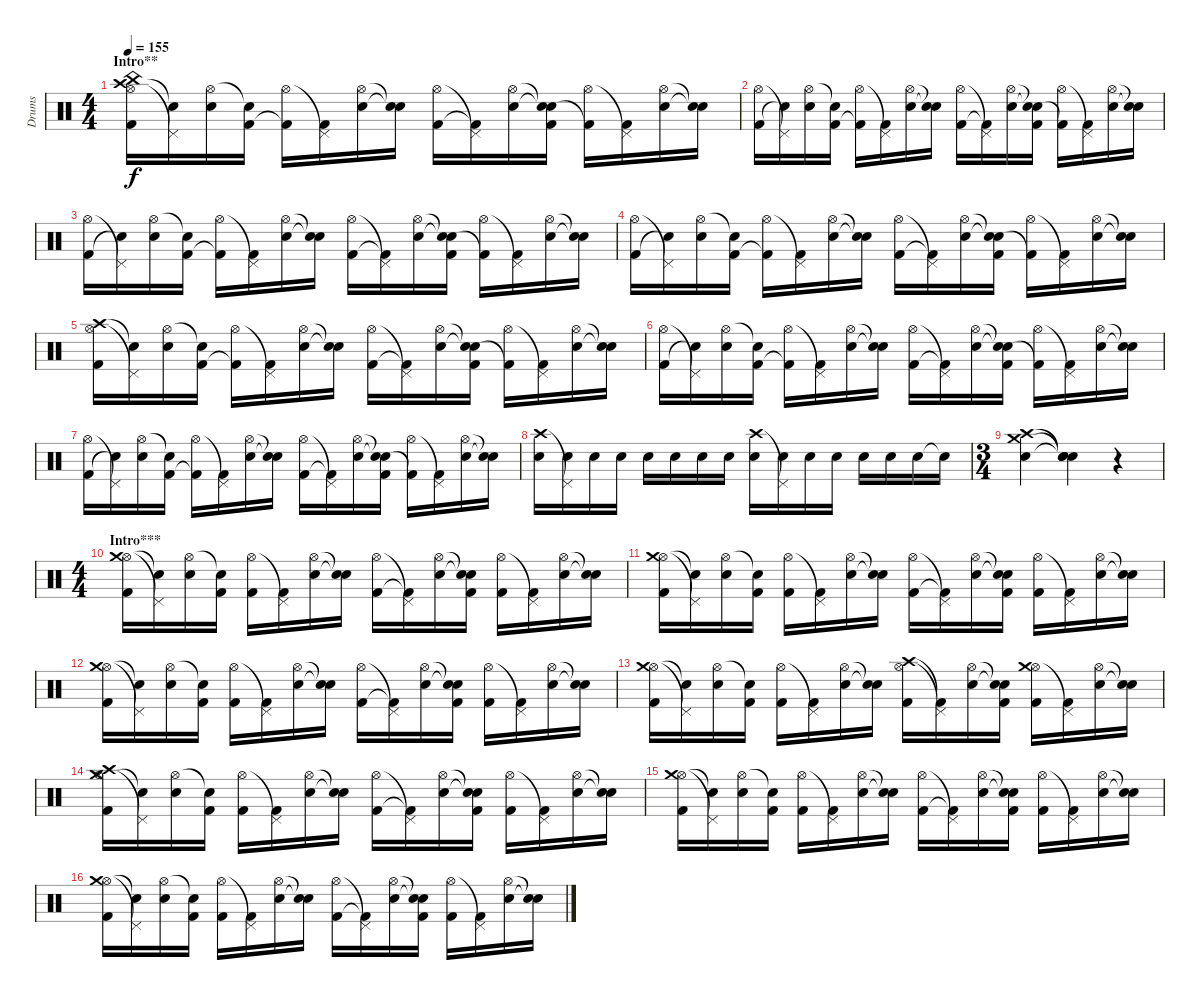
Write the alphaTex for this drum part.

\track ("Drums" "Drums") {instrument percussion}
\staff {score}
\articulation defaults
\ts (4 4)
\section ("" "Intro**")
\tempo 155
\clef neutral
\ks c
("Hi-Hat (open)" "Crash high (hit)" "China (hit)" "Kick (hit) 2").16{dy f} ("Pedal Hi-Hat (hit)"{t} "Snare (hit)"{t}).16 ("Hi-Hat (open)" "Electric Snare (hit)").16 ("Snare (hit)"{t} "Kick (hit) 2").16 ("Hi-Hat (open)" "Kick (hit) 2"{t}).16 ("Pedal Hi-Hat (hit)"{t} "Kick (hit) 2").16 ("Hi-Hat (open)" "Electric Snare (hit)").16 ("Snare (hit)"{t} "Electric Snare (hit)"{t}).16 ("Hi-Hat (open)" "Kick (hit) 2").16 ("Pedal Hi-Hat (hit)"{t} "Kick (hit) 2"{t}).16 ("Hi-Hat (open)" "Electric Snare (hit)").16 ("Snare (hit)"{t} "Electric Snare (hit)"{t} "Kick (hit) 2").16 ("Hi-Hat (open)" "Kick (hit) 2"{t}).16 ("Pedal Hi-Hat (hit)"{t} "Kick (hit) 2").16 ("Hi-Hat (open)" "Electric Snare (hit)").16 ("Snare (hit)"{t} "Electric Snare (hit)"{t}).16 |
("Hi-Hat (open)" "Kick (hit) 2").16 ("Pedal Hi-Hat (hit)"{t} "Snare (hit)"{t}).16 ("Hi-Hat (open)" "Electric Snare (hit)").16 ("Snare (hit)"{t} "Kick (hit) 2").16 ("Hi-Hat (open)" "Kick (hit) 2"{t}).16 ("Pedal Hi-Hat (hit)"{t} "Kick (hit) 2").16 ("Hi-Hat (open)" "Electric Snare (hit)").16 ("Snare (hit)"{t} "Electric Snare (hit)"{t}).16 ("Hi-Hat (open)" "Kick (hit) 2").16 ("Pedal Hi-Hat (hit)"{t} "Kick (hit) 2"{t}).16 ("Hi-Hat (open)" "Electric Snare (hit)").16 ("Snare (hit)"{t} "Electric Snare (hit)"{t} "Kick (hit) 2").16 ("Hi-Hat (open)" "Kick (hit) 2"{t}).16 ("Pedal Hi-Hat (hit)"{t} "Kick (hit) 2").16 ("Hi-Hat (open)" "Electric Snare (hit)").16 ("Snare (hit)"{t} "Electric Snare (hit)"{t}).16 |
("Hi-Hat (open)" "Kick (hit) 2").16 ("Pedal Hi-Hat (hit)"{t} "Snare (hit)"{t}).16 ("Hi-Hat (open)" "Electric Snare (hit)").16 ("Snare (hit)"{t} "Kick (hit) 2").16 ("Hi-Hat (open)" "Kick (hit) 2"{t}).16 ("Pedal Hi-Hat (hit)"{t} "Kick (hit) 2").16 ("Hi-Hat (open)" "Electric Snare (hit)").16 ("Snare (hit)"{t} "Electric Snare (hit)"{t}).16 ("Hi-Hat (open)" "Kick (hit) 2").16 ("Pedal Hi-Hat (hit)"{t} "Kick (hit) 2"{t}).16 ("Hi-Hat (open)" "Electric Snare (hit)").16 ("Snare (hit)"{t} "Electric Snare (hit)"{t} "Kick (hit) 2").16 ("Hi-Hat (open)" "Kick (hit) 2"{t}).16 ("Pedal Hi-Hat (hit)"{t} "Kick (hit) 2").16 ("Hi-Hat (open)" "Electric Snare (hit)").16 ("Snare (hit)"{t} "Electric Snare (hit)"{t}).16 |
("Hi-Hat (open)" "Kick (hit) 2").16 ("Pedal Hi-Hat (hit)"{t} "Snare (hit)"{t}).16 ("Hi-Hat (open)" "Electric Snare (hit)").16 ("Snare (hit)"{t} "Kick (hit) 2").16 ("Hi-Hat (open)" "Kick (hit) 2"{t}).16 ("Pedal Hi-Hat (hit)"{t} "Kick (hit) 2").16 ("Hi-Hat (open)" "Electric Snare (hit)").16 ("Snare (hit)"{t} "Electric Snare (hit)"{t}).16 ("Hi-Hat (open)" "Kick (hit) 2").16 ("Pedal Hi-Hat (hit)"{t} "Kick (hit) 2"{t}).16 ("Hi-Hat (open)" "Electric Snare (hit)").16 ("Snare (hit)"{t} "Electric Snare (hit)"{t} "Kick (hit) 2").16 ("Hi-Hat (open)" "Kick (hit) 2"{t}).16 ("Pedal Hi-Hat (hit)"{t} "Kick (hit) 2").16 ("Hi-Hat (open)" "Electric Snare (hit)").16 ("Snare (hit)"{t} "Electric Snare (hit)"{t}).16 |
("Hi-Hat (open)" "Crash high (hit)" "Kick (hit) 2").16 ("Pedal Hi-Hat (hit)"{t} "Snare (hit)"{t}).16 ("Hi-Hat (open)" "Electric Snare (hit)").16 ("Snare (hit)"{t} "Kick (hit) 2").16 ("Hi-Hat (open)" "Kick (hit) 2"{t}).16 ("Pedal Hi-Hat (hit)"{t} "Kick (hit) 2").16 ("Hi-Hat (open)" "Electric Snare (hit)").16 ("Snare (hit)"{t} "Electric Snare (hit)"{t}).16 ("Hi-Hat (open)" "Kick (hit) 2").16 ("Pedal Hi-Hat (hit)"{t} "Kick (hit) 2"{t}).16 ("Hi-Hat (open)" "Electric Snare (hit)").16 ("Snare (hit)"{t} "Electric Snare (hit)"{t} "Kick (hit) 2").16 ("Hi-Hat (open)" "Kick (hit) 2"{t}).16 ("Pedal Hi-Hat (hit)"{t} "Kick (hit) 2").16 ("Hi-Hat (open)" "Electric Snare (hit)").16 ("Snare (hit)"{t} "Electric Snare (hit)"{t}).16 |
("Hi-Hat (open)" "Kick (hit) 2").16 ("Pedal Hi-Hat (hit)"{t} "Snare (hit)"{t}).16 ("Hi-Hat (open)" "Electric Snare (hit)").16 ("Snare (hit)"{t} "Kick (hit) 2").16 ("Hi-Hat (open)" "Kick (hit) 2"{t}).16 ("Pedal Hi-Hat (hit)"{t} "Kick (hit) 2").16 ("Hi-Hat (open)" "Electric Snare (hit)").16 ("Snare (hit)"{t} "Electric Snare (hit)"{t}).16 ("Hi-Hat (open)" "Kick (hit) 2").16 ("Pedal Hi-Hat (hit)"{t} "Kick (hit) 2"{t}).16 ("Hi-Hat (open)" "Electric Snare (hit)").16 ("Snare (hit)"{t} "Electric Snare (hit)"{t} "Kick (hit) 2").16 ("Hi-Hat (open)" "Kick (hit) 2"{t}).16 ("Pedal Hi-Hat (hit)"{t} "Kick (hit) 2").16 ("Hi-Hat (open)" "Electric Snare (hit)").16 ("Snare (hit)"{t} "Electric Snare (hit)"{t}).16 |
("Hi-Hat (open)" "Kick (hit) 2").16 ("Pedal Hi-Hat (hit)"{t} "Snare (hit)"{t}).16 ("Hi-Hat (open)" "Electric Snare (hit)").16 ("Snare (hit)"{t} "Kick (hit) 2").16 ("Hi-Hat (open)" "Kick (hit) 2"{t}).16 ("Pedal Hi-Hat (hit)"{t} "Kick (hit) 2").16 ("Hi-Hat (open)" "Electric Snare (hit)").16 ("Snare (hit)"{t} "Electric Snare (hit)"{t}).16 ("Hi-Hat (open)" "Kick (hit) 2").16 ("Pedal Hi-Hat (hit)"{t} "Kick (hit) 2"{t}).16 ("Hi-Hat (open)" "Electric Snare (hit)").16 ("Snare (hit)"{t} "Electric Snare (hit)"{t} "Kick (hit) 2").16 ("Hi-Hat (open)" "Kick (hit) 2"{t}).16 ("Pedal Hi-Hat (hit)"{t} "Kick (hit) 2").16 ("Hi-Hat (open)" "Electric Snare (hit)").16 ("Snare (hit)"{t} "Electric Snare (hit)"{t}).16 |
("Crash high (hit)" "Snare (hit) 2").16 ("Pedal Hi-Hat (hit)"{t} "Snare (hit) 2").16 "Electric Snare (hit)".16 "Electric Snare (hit)".16 "Electric Snare (hit)".16 "Electric Snare (hit)".16 "Electric Snare (hit)".16 "Snare (hit) 2".16 ("Crash high (hit)" "Snare (hit) 2").16 ("Pedal Hi-Hat (hit)"{t} "Snare (hit) 2").16 "Electric Snare (hit)".16 "Electric Snare (hit)".16 "Electric Snare (hit)".16 "Electric Snare (hit)".16 "Electric Snare (hit)".16 "Snare (hit)"{t}.16 |
\ts (3 4)
("Crash high (hit)" "Crash medium (hit)" "Snare (hit) 2").4 ("Snare (hit)"{t} "Snare (hit)"{t} "Snare (hit)"{t}).4 r.4 |
\ts (4 4)
\section ("" "Intro***")
("Hi-Hat (open)" "Crash medium (hit)" "Kick (hit) 2").16 ("Pedal Hi-Hat (hit)"{t} "Snare (hit)"{t}).16 ("Hi-Hat (open)" "Electric Snare (hit)").16 ("Snare (hit)"{t} "Kick (hit) 2").16 ("Hi-Hat (open)" "Kick (hit) 2").16 ("Pedal Hi-Hat (hit)"{t} "Kick (hit) 2").16 ("Hi-Hat (open)" "Electric Snare (hit)").16 ("Snare (hit)"{t} "Electric Snare (hit)"{t}).16 ("Hi-Hat (open)" "Kick (hit) 2").16 ("Pedal Hi-Hat (hit)"{t} "Kick (hit) 2"{t}).16 ("Hi-Hat (open)" "Electric Snare (hit)").16 ("Snare (hit)"{t} "Electric Snare (hit)"{t} "Kick (hit) 2").16 ("Hi-Hat (open)" "Kick (hit) 2").16 ("Pedal Hi-Hat (hit)"{t} "Kick (hit) 2").16 ("Hi-Hat (open)" "Electric Snare (hit)").16 ("Snare (hit)"{t} "Electric Snare (hit)"{t}).16 |
("Hi-Hat (open)" "Crash medium (hit)" "Kick (hit) 2").16 ("Pedal Hi-Hat (hit)"{t} "Snare (hit)"{t}).16 ("Hi-Hat (open)" "Electric Snare (hit)").16 ("Snare (hit)"{t} "Kick (hit) 2").16 ("Hi-Hat (open)" "Kick (hit) 2").16 ("Pedal Hi-Hat (hit)"{t} "Kick (hit) 2").16 ("Hi-Hat (open)" "Electric Snare (hit)").16 ("Snare (hit)"{t} "Electric Snare (hit)"{t}).16 ("Hi-Hat (open)" "Kick (hit) 2").16 ("Pedal Hi-Hat (hit)"{t} "Kick (hit) 2"{t}).16 ("Hi-Hat (open)" "Electric Snare (hit)").16 ("Snare (hit)"{t} "Electric Snare (hit)"{t} "Kick (hit) 2").16 ("Hi-Hat (open)" "Kick (hit) 2").16 ("Pedal Hi-Hat (hit)"{t} "Kick (hit) 2").16 ("Hi-Hat (open)" "Electric Snare (hit)").16 ("Snare (hit)"{t} "Electric Snare (hit)"{t}).16 |
("Hi-Hat (open)" "Crash medium (hit)" "Kick (hit) 2").16 ("Pedal Hi-Hat (hit)"{t} "Snare (hit)"{t}).16 ("Hi-Hat (open)" "Electric Snare (hit)").16 ("Snare (hit)"{t} "Kick (hit) 2").16 ("Hi-Hat (open)" "Kick (hit) 2").16 ("Pedal Hi-Hat (hit)"{t} "Kick (hit) 2").16 ("Hi-Hat (open)" "Electric Snare (hit)").16 ("Snare (hit)"{t} "Electric Snare (hit)"{t}).16 ("Hi-Hat (open)" "Kick (hit) 2").16 ("Pedal Hi-Hat (hit)"{t} "Kick (hit) 2"{t}).16 ("Hi-Hat (open)" "Electric Snare (hit)").16 ("Snare (hit)"{t} "Electric Snare (hit)"{t} "Kick (hit) 2").16 ("Hi-Hat (open)" "Kick (hit) 2").16 ("Pedal Hi-Hat (hit)"{t} "Kick (hit) 2").16 ("Hi-Hat (open)" "Electric Snare (hit)").16 ("Snare (hit)"{t} "Electric Snare (hit)"{t}).16 |
("Hi-Hat (open)" "Crash medium (hit)" "Kick (hit) 2").16 ("Pedal Hi-Hat (hit)"{t} "Snare (hit)"{t}).16 ("Hi-Hat (open)" "Electric Snare (hit)").16 ("Snare (hit)"{t} "Kick (hit) 2").16 ("Hi-Hat (open)" "Kick (hit) 2").16 ("Pedal Hi-Hat (hit)"{t} "Kick (hit) 2").16 ("Hi-Hat (open)" "Electric Snare (hit)").16 ("Snare (hit)"{t} "Electric Snare (hit)"{t}).16 ("Hi-Hat (open)" "Crash high (hit)" "Kick (hit) 2").16 ("Pedal Hi-Hat (hit)"{t} "Kick (hit) 2"{t}).16 ("Hi-Hat (open)" "Electric Snare (hit)").16 ("Snare (hit)"{t} "Electric Snare (hit)"{t} "Kick (hit) 2").16 ("Hi-Hat (open)" "Crash medium (hit)" "Kick (hit) 2").16 ("Pedal Hi-Hat (hit)"{t} "Kick (hit) 2").16 ("Hi-Hat (open)" "Electric Snare (hit)").16 ("Snare (hit)"{t} "Electric Snare (hit)"{t}).16 |
("Hi-Hat (open)" "Crash medium (hit)" "Crash high (hit)" "Kick (hit) 2").16 ("Pedal Hi-Hat (hit)"{t} "Snare (hit)"{t}).16 ("Hi-Hat (open)" "Electric Snare (hit)").16 ("Snare (hit)"{t} "Kick (hit) 2").16 ("Hi-Hat (open)" "Kick (hit) 2").16 ("Pedal Hi-Hat (hit)"{t} "Kick (hit) 2").16 ("Hi-Hat (open)" "Electric Snare (hit)").16 ("Snare (hit)"{t} "Electric Snare (hit)"{t}).16 ("Hi-Hat (open)" "Kick (hit) 2").16 ("Pedal Hi-Hat (hit)"{t} "Kick (hit) 2"{t}).16 ("Hi-Hat (open)" "Electric Snare (hit)").16 ("Snare (hit)"{t} "Electric Snare (hit)"{t} "Kick (hit) 2").16 ("Hi-Hat (open)" "Kick (hit) 2").16 ("Pedal Hi-Hat (hit)"{t} "Kick (hit) 2").16 ("Hi-Hat (open)" "Electric Snare (hit)").16 ("Snare (hit)"{t} "Electric Snare (hit)"{t}).16 |
("Hi-Hat (open)" "Crash medium (hit)" "Kick (hit) 2").16 ("Pedal Hi-Hat (hit)"{t} "Snare (hit)"{t}).16 ("Hi-Hat (open)" "Electric Snare (hit)").16 ("Snare (hit)"{t} "Kick (hit) 2").16 ("Hi-Hat (open)" "Kick (hit) 2").16 ("Pedal Hi-Hat (hit)"{t} "Kick (hit) 2").16 ("Hi-Hat (open)" "Electric Snare (hit)").16 ("Snare (hit)"{t} "Electric Snare (hit)"{t}).16 ("Hi-Hat (open)" "Kick (hit) 2").16 ("Pedal Hi-Hat (hit)"{t} "Kick (hit) 2"{t}).16 ("Hi-Hat (open)" "Electric Snare (hit)").16 ("Snare (hit)"{t} "Electric Snare (hit)"{t} "Kick (hit) 2").16 ("Hi-Hat (open)" "Kick (hit) 2").16 ("Pedal Hi-Hat (hit)"{t} "Kick (hit) 2").16 ("Hi-Hat (open)" "Electric Snare (hit)").16 ("Snare (hit)"{t} "Electric Snare (hit)"{t}).16 |
("Hi-Hat (open)" "Crash medium (hit)" "Kick (hit) 2").16 ("Pedal Hi-Hat (hit)"{t} "Snare (hit)"{t}).16 ("Hi-Hat (open)" "Electric Snare (hit)").16 ("Snare (hit)"{t} "Kick (hit) 2").16 ("Hi-Hat (open)" "Kick (hit) 2").16 ("Pedal Hi-Hat (hit)"{t} "Kick (hit) 2").16 ("Hi-Hat (open)" "Electric Snare (hit)").16 ("Snare (hit)"{t} "Electric Snare (hit)"{t}).16 ("Hi-Hat (open)" "Kick (hit) 2").16 ("Pedal Hi-Hat (hit)"{t} "Kick (hit) 2"{t}).16 ("Hi-Hat (open)" "Electric Snare (hit)").16 ("Snare (hit)"{t} "Electric Snare (hit)"{t} "Kick (hit) 2").16 ("Hi-Hat (open)" "Kick (hit) 2").16 ("Pedal Hi-Hat (hit)"{t} "Kick (hit) 2").16 ("Hi-Hat (open)" "Electric Snare (hit)").16 ("Snare (hit)"{t} "Electric Snare (hit)"{t}).16
